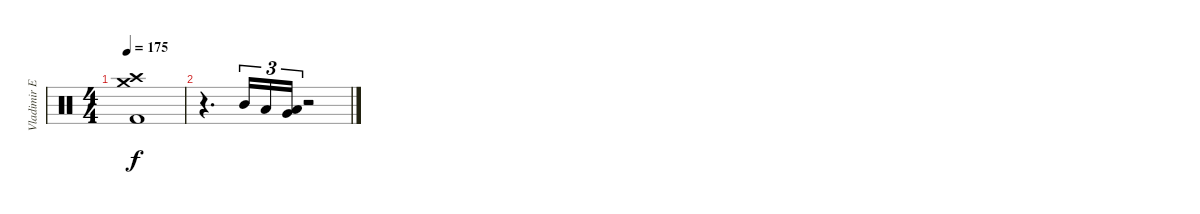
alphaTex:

\track ("Vladimir Ermakoff" "Vladimir E") {instrument percussion}
\staff {score}
\articulation defaults
\ts (4 4)
\tempo 175
\clef neutral
\ks c
("Crash medium (hit)" "Crash high (hit)" "Kick (hit) 2").1{dy f} |
r.4{d} "Mid Tom (hit)".16{tu (3 2)} "Low Tom (hit)".16{tu (3 2)} ("Very Low Tom (hit)" "Low Floor Tom (hit)").16{tu (3 2)} r.2
